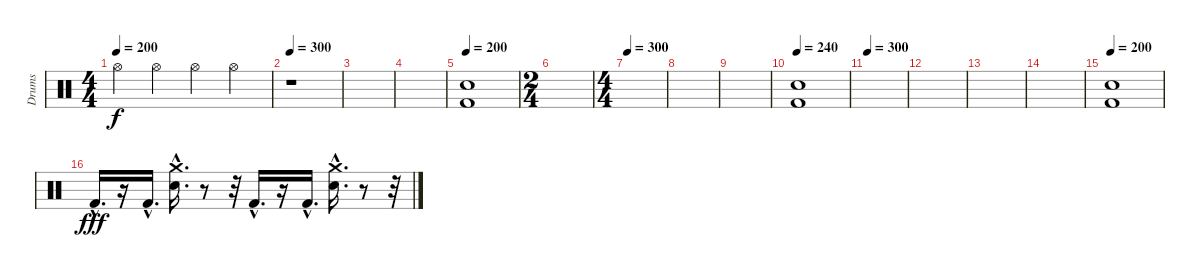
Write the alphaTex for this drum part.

\track ("Drums" "Drums") {instrument percussion}
\staff {score}
\articulation defaults
\ts (4 4)
\tempo 200
\clef neutral
\ks c "Hi-Hat (open)".4{dy f} "Hi-Hat (open)".4 "Hi-Hat (open)".4 "Hi-Hat (open)".4
|
\tempo 300
r.1 |
|
|
\tempo 200
("Electric Snare (hit)" "Kick (hit) 2").1 |
\ts (2 4)
|
\ts (4 4)
\tempo 300
|
|
|
\tempo 240
("Electric Snare (hit)" "Kick (hit) 2").1 |
\tempo 300
|
|
|
|
\tempo 200
("Electric Snare (hit)" "Kick (hit) 2").1 |
"Kick (hit) 2"{hac}.16{d dy fff} r.16 "Kick (hit) 2"{hac}.16{d} ("Crash medium (hit)"{hac} "Electric Snare (hit)"{hac}).16{d} r.8 r.32 "Kick (hit) 2"{hac}.16{d} r.16 "Kick (hit) 2"{hac}.16{d} ("Crash medium (hit)"{hac} "Electric Snare (hit)"{hac}).16{d} r.8 r.32
